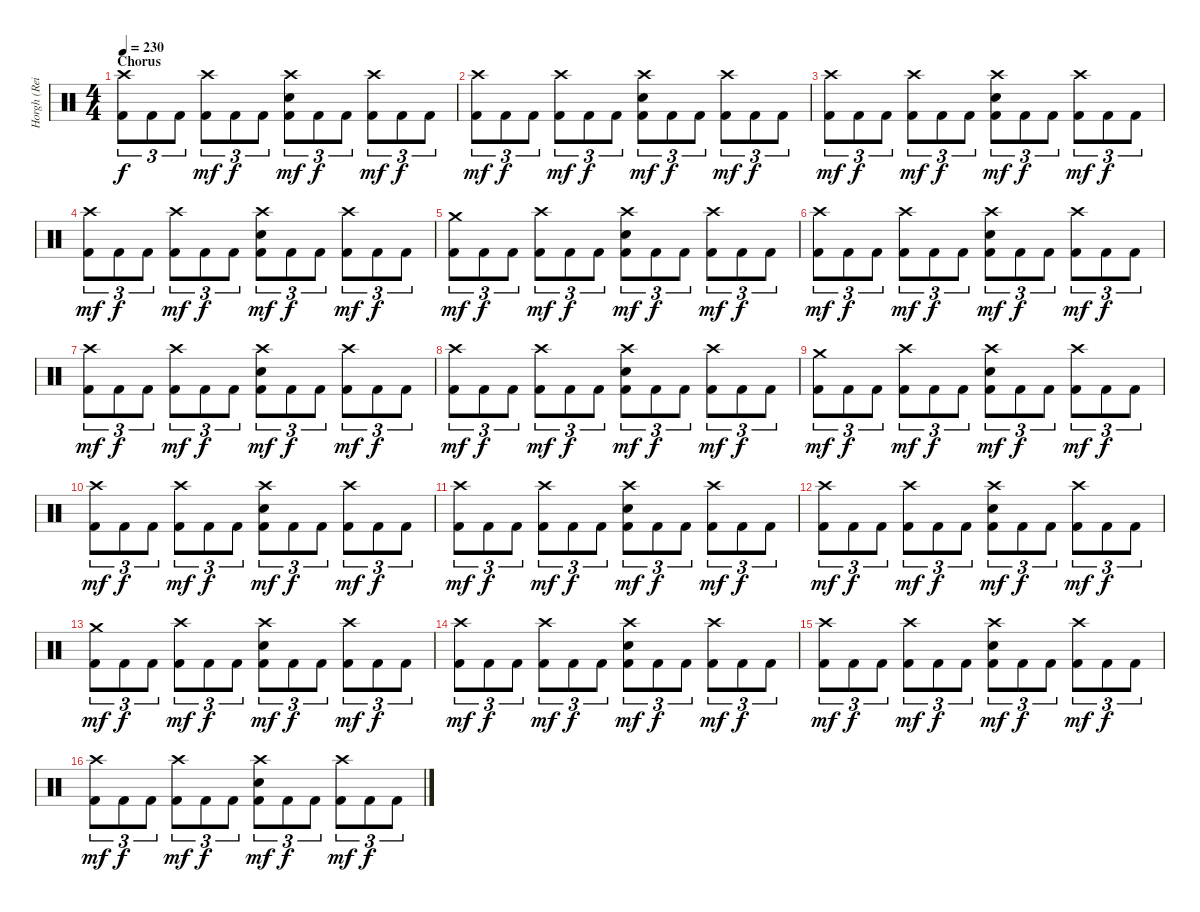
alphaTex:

\track ("Horgh (Reidar Horghagen)" "Horgh (Rei") {instrument percussion}
\staff {score}
\articulation defaults
\ts (4 4)
\section ("" "Chorus")
\tempo 230
\clef neutral
\ks c
("Crash high (hit)" "Kick (hit) 2").8{tu (3 2) dy f} "Kick (hit) 2".8{tu (3 2)} "Kick (hit) 2".8{tu (3 2)} ("Crash high (hit)" "Kick (hit) 2").8{tu (3 2) dy mf} "Kick (hit) 2".8{tu (3 2) dy f} "Kick (hit) 2".8{tu (3 2)} ("Crash high (hit)" "Snare (hit) 2" "Kick (hit) 2").8{tu (3 2) dy mf} "Kick (hit) 2".8{tu (3 2) dy f} "Kick (hit) 2".8{tu (3 2)} ("Crash high (hit)" "Kick (hit) 2").8{tu (3 2) dy mf} "Kick (hit) 2".8{tu (3 2) dy f} "Kick (hit) 2".8{tu (3 2)} |
("Crash high (hit)" "Kick (hit) 2").8{tu (3 2) dy mf} "Kick (hit) 2".8{tu (3 2) dy f} "Kick (hit) 2".8{tu (3 2)} ("Crash high (hit)" "Kick (hit) 2").8{tu (3 2) dy mf} "Kick (hit) 2".8{tu (3 2) dy f} "Kick (hit) 2".8{tu (3 2)} ("Crash high (hit)" "Snare (hit) 2" "Kick (hit) 2").8{tu (3 2) dy mf} "Kick (hit) 2".8{tu (3 2) dy f} "Kick (hit) 2".8{tu (3 2)} ("Crash high (hit)" "Kick (hit) 2").8{tu (3 2) dy mf} "Kick (hit) 2".8{tu (3 2) dy f} "Kick (hit) 2".8{tu (3 2)} |
("Crash high (hit)" "Kick (hit) 2").8{tu (3 2) dy mf} "Kick (hit) 2".8{tu (3 2) dy f} "Kick (hit) 2".8{tu (3 2)} ("Crash high (hit)" "Kick (hit) 2").8{tu (3 2) dy mf} "Kick (hit) 2".8{tu (3 2) dy f} "Kick (hit) 2".8{tu (3 2)} ("Crash high (hit)" "Snare (hit) 2" "Kick (hit) 2").8{tu (3 2) dy mf} "Kick (hit) 2".8{tu (3 2) dy f} "Kick (hit) 2".8{tu (3 2)} ("Crash high (hit)" "Kick (hit) 2").8{tu (3 2) dy mf} "Kick (hit) 2".8{tu (3 2) dy f} "Kick (hit) 2".8{tu (3 2)} |
("Crash high (hit)" "Kick (hit) 2").8{tu (3 2) dy mf} "Kick (hit) 2".8{tu (3 2) dy f} "Kick (hit) 2".8{tu (3 2)} ("Crash high (hit)" "Kick (hit) 2").8{tu (3 2) dy mf} "Kick (hit) 2".8{tu (3 2) dy f} "Kick (hit) 2".8{tu (3 2)} ("Crash high (hit)" "Snare (hit) 2" "Kick (hit) 2").8{tu (3 2) dy mf} "Kick (hit) 2".8{tu (3 2) dy f} "Kick (hit) 2".8{tu (3 2)} ("Crash high (hit)" "Kick (hit) 2").8{tu (3 2) dy mf} "Kick (hit) 2".8{tu (3 2) dy f} "Kick (hit) 2".8{tu (3 2)} |
("Crash medium (hit)" "Kick (hit) 2").8{tu (3 2) dy mf} "Kick (hit) 2".8{tu (3 2) dy f} "Kick (hit) 2".8{tu (3 2)} ("Crash high (hit)" "Kick (hit) 2").8{tu (3 2) dy mf} "Kick (hit) 2".8{tu (3 2) dy f} "Kick (hit) 2".8{tu (3 2)} ("Crash high (hit)" "Snare (hit) 2" "Kick (hit) 2").8{tu (3 2) dy mf} "Kick (hit) 2".8{tu (3 2) dy f} "Kick (hit) 2".8{tu (3 2)} ("Crash high (hit)" "Kick (hit) 2").8{tu (3 2) dy mf} "Kick (hit) 2".8{tu (3 2) dy f} "Kick (hit) 2".8{tu (3 2)} |
("Crash high (hit)" "Kick (hit) 2").8{tu (3 2) dy mf} "Kick (hit) 2".8{tu (3 2) dy f} "Kick (hit) 2".8{tu (3 2)} ("Crash high (hit)" "Kick (hit) 2").8{tu (3 2) dy mf} "Kick (hit) 2".8{tu (3 2) dy f} "Kick (hit) 2".8{tu (3 2)} ("Crash high (hit)" "Snare (hit) 2" "Kick (hit) 2").8{tu (3 2) dy mf} "Kick (hit) 2".8{tu (3 2) dy f} "Kick (hit) 2".8{tu (3 2)} ("Crash high (hit)" "Kick (hit) 2").8{tu (3 2) dy mf} "Kick (hit) 2".8{tu (3 2) dy f} "Kick (hit) 2".8{tu (3 2)} |
("Crash high (hit)" "Kick (hit) 2").8{tu (3 2) dy mf} "Kick (hit) 2".8{tu (3 2) dy f} "Kick (hit) 2".8{tu (3 2)} ("Crash high (hit)" "Kick (hit) 2").8{tu (3 2) dy mf} "Kick (hit) 2".8{tu (3 2) dy f} "Kick (hit) 2".8{tu (3 2)} ("Crash high (hit)" "Snare (hit) 2" "Kick (hit) 2").8{tu (3 2) dy mf} "Kick (hit) 2".8{tu (3 2) dy f} "Kick (hit) 2".8{tu (3 2)} ("Crash high (hit)" "Kick (hit) 2").8{tu (3 2) dy mf} "Kick (hit) 2".8{tu (3 2) dy f} "Kick (hit) 2".8{tu (3 2)} |
("Crash high (hit)" "Kick (hit) 2").8{tu (3 2) dy mf} "Kick (hit) 2".8{tu (3 2) dy f} "Kick (hit) 2".8{tu (3 2)} ("Crash high (hit)" "Kick (hit) 2").8{tu (3 2) dy mf} "Kick (hit) 2".8{tu (3 2) dy f} "Kick (hit) 2".8{tu (3 2)} ("Crash high (hit)" "Snare (hit) 2" "Kick (hit) 2").8{tu (3 2) dy mf} "Kick (hit) 2".8{tu (3 2) dy f} "Kick (hit) 2".8{tu (3 2)} ("Crash high (hit)" "Kick (hit) 2").8{tu (3 2) dy mf} "Kick (hit) 2".8{tu (3 2) dy f} "Kick (hit) 2".8{tu (3 2)} |
("Crash medium (hit)" "Kick (hit) 2").8{tu (3 2) dy mf} "Kick (hit) 2".8{tu (3 2) dy f} "Kick (hit) 2".8{tu (3 2)} ("Crash high (hit)" "Kick (hit) 2").8{tu (3 2) dy mf} "Kick (hit) 2".8{tu (3 2) dy f} "Kick (hit) 2".8{tu (3 2)} ("Crash high (hit)" "Snare (hit) 2" "Kick (hit) 2").8{tu (3 2) dy mf} "Kick (hit) 2".8{tu (3 2) dy f} "Kick (hit) 2".8{tu (3 2)} ("Crash high (hit)" "Kick (hit) 2").8{tu (3 2) dy mf} "Kick (hit) 2".8{tu (3 2) dy f} "Kick (hit) 2".8{tu (3 2)} |
("Crash high (hit)" "Kick (hit) 2").8{tu (3 2) dy mf} "Kick (hit) 2".8{tu (3 2) dy f} "Kick (hit) 2".8{tu (3 2)} ("Crash high (hit)" "Kick (hit) 2").8{tu (3 2) dy mf} "Kick (hit) 2".8{tu (3 2) dy f} "Kick (hit) 2".8{tu (3 2)} ("Crash high (hit)" "Snare (hit) 2" "Kick (hit) 2").8{tu (3 2) dy mf} "Kick (hit) 2".8{tu (3 2) dy f} "Kick (hit) 2".8{tu (3 2)} ("Crash high (hit)" "Kick (hit) 2").8{tu (3 2) dy mf} "Kick (hit) 2".8{tu (3 2) dy f} "Kick (hit) 2".8{tu (3 2)} |
("Crash high (hit)" "Kick (hit) 2").8{tu (3 2) dy mf} "Kick (hit) 2".8{tu (3 2) dy f} "Kick (hit) 2".8{tu (3 2)} ("Crash high (hit)" "Kick (hit) 2").8{tu (3 2) dy mf} "Kick (hit) 2".8{tu (3 2) dy f} "Kick (hit) 2".8{tu (3 2)} ("Crash high (hit)" "Snare (hit) 2" "Kick (hit) 2").8{tu (3 2) dy mf} "Kick (hit) 2".8{tu (3 2) dy f} "Kick (hit) 2".8{tu (3 2)} ("Crash high (hit)" "Kick (hit) 2").8{tu (3 2) dy mf} "Kick (hit) 2".8{tu (3 2) dy f} "Kick (hit) 2".8{tu (3 2)} |
("Crash high (hit)" "Kick (hit) 2").8{tu (3 2) dy mf} "Kick (hit) 2".8{tu (3 2) dy f} "Kick (hit) 2".8{tu (3 2)} ("Crash high (hit)" "Kick (hit) 2").8{tu (3 2) dy mf} "Kick (hit) 2".8{tu (3 2) dy f} "Kick (hit) 2".8{tu (3 2)} ("Crash high (hit)" "Snare (hit) 2" "Kick (hit) 2").8{tu (3 2) dy mf} "Kick (hit) 2".8{tu (3 2) dy f} "Kick (hit) 2".8{tu (3 2)} ("Crash high (hit)" "Kick (hit) 2").8{tu (3 2) dy mf} "Kick (hit) 2".8{tu (3 2) dy f} "Kick (hit) 2".8{tu (3 2)} |
("Crash medium (hit)" "Kick (hit) 2").8{tu (3 2) dy mf} "Kick (hit) 2".8{tu (3 2) dy f} "Kick (hit) 2".8{tu (3 2)} ("Crash high (hit)" "Kick (hit) 2").8{tu (3 2) dy mf} "Kick (hit) 2".8{tu (3 2) dy f} "Kick (hit) 2".8{tu (3 2)} ("Crash high (hit)" "Snare (hit) 2" "Kick (hit) 2").8{tu (3 2) dy mf} "Kick (hit) 2".8{tu (3 2) dy f} "Kick (hit) 2".8{tu (3 2)} ("Crash high (hit)" "Kick (hit) 2").8{tu (3 2) dy mf} "Kick (hit) 2".8{tu (3 2) dy f} "Kick (hit) 2".8{tu (3 2)} |
("Crash high (hit)" "Kick (hit) 2").8{tu (3 2) dy mf} "Kick (hit) 2".8{tu (3 2) dy f} "Kick (hit) 2".8{tu (3 2)} ("Crash high (hit)" "Kick (hit) 2").8{tu (3 2) dy mf} "Kick (hit) 2".8{tu (3 2) dy f} "Kick (hit) 2".8{tu (3 2)} ("Crash high (hit)" "Snare (hit) 2" "Kick (hit) 2").8{tu (3 2) dy mf} "Kick (hit) 2".8{tu (3 2) dy f} "Kick (hit) 2".8{tu (3 2)} ("Crash high (hit)" "Kick (hit) 2").8{tu (3 2) dy mf} "Kick (hit) 2".8{tu (3 2) dy f} "Kick (hit) 2".8{tu (3 2)} |
("Crash high (hit)" "Kick (hit) 2").8{tu (3 2) dy mf} "Kick (hit) 2".8{tu (3 2) dy f} "Kick (hit) 2".8{tu (3 2)} ("Crash high (hit)" "Kick (hit) 2").8{tu (3 2) dy mf} "Kick (hit) 2".8{tu (3 2) dy f} "Kick (hit) 2".8{tu (3 2)} ("Crash high (hit)" "Snare (hit) 2" "Kick (hit) 2").8{tu (3 2) dy mf} "Kick (hit) 2".8{tu (3 2) dy f} "Kick (hit) 2".8{tu (3 2)} ("Crash high (hit)" "Kick (hit) 2").8{tu (3 2) dy mf} "Kick (hit) 2".8{tu (3 2) dy f} "Kick (hit) 2".8{tu (3 2)} |
("Crash high (hit)" "Kick (hit) 2").8{tu (3 2) dy mf} "Kick (hit) 2".8{tu (3 2) dy f} "Kick (hit) 2".8{tu (3 2)} ("Crash high (hit)" "Kick (hit) 2").8{tu (3 2) dy mf} "Kick (hit) 2".8{tu (3 2) dy f} "Kick (hit) 2".8{tu (3 2)} ("Crash high (hit)" "Snare (hit) 2" "Kick (hit) 2").8{tu (3 2) dy mf} "Kick (hit) 2".8{tu (3 2) dy f} "Kick (hit) 2".8{tu (3 2)} ("Crash high (hit)" "Kick (hit) 2").8{tu (3 2) dy mf} "Kick (hit) 2".8{tu (3 2) dy f} "Kick (hit) 2".8{tu (3 2)}
